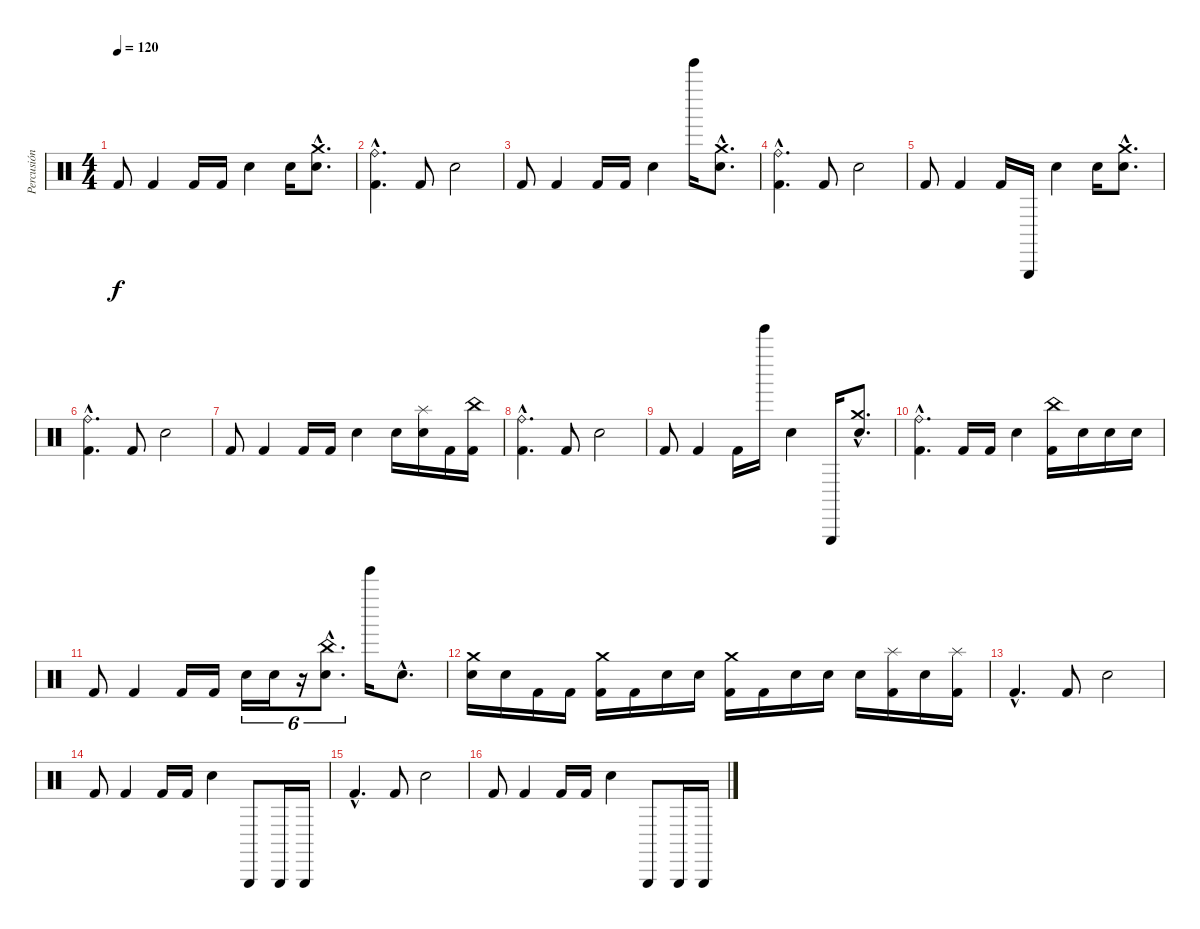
\track ("Percusión" "Percusión") {instrument percussion}
\staff {score}
\articulation defaults
\ts (4 4)
\tempo 120
\clef neutral
\ks c "Kick (hit) 2".8{dy f} "Kick (hit) 2".4 "Kick (hit) 2".16 "Kick (hit) 2".16 "Electric Snare (hit)".4 "Electric Snare (hit)".16
("Crash medium (hit)"{hac} "Electric Snare (hit)"{hac}).8{d} |
("Ride (bell)"{hac} "Kick (hit) 2"{hac}).4{d} "Kick (hit) 2".8 "Electric Snare (hit)".2 |
"Kick (hit) 2".8 "Kick (hit) 2".4 "Kick (hit) 2".16 "Kick (hit) 2".16 "Electric Snare (hit)".4 "Tinkle Bell (hit)".16 ("Crash medium (hit)"{hac} "Electric Snare (hit)"{hac}).8{d} |
("Ride (bell)"{hac} "Kick (hit) 2"{hac}).4{d} "Kick (hit) 2".8 "Electric Snare (hit)".2 |
"Kick (hit) 2".8 "Kick (hit) 2".4 "Kick (hit) 2".16 "Triangle (hit)".16 "Electric Snare (hit)".4 "Electric Snare (hit)".16 ("Crash medium (hit)"{hac} "Electric Snare (hit)"{hac}).8{d} |
("Ride (bell)"{hac} "Kick (hit) 2"{hac}).4{d} "Kick (hit) 2".8 "Electric Snare (hit)".2 |
"Kick (hit) 2".8 "Kick (hit) 2".4 "Kick (hit) 2".16 "Kick (hit) 2".16 "Electric Snare (hit)".4 "Electric Snare (hit)".16 ("Splash (hit)" "Electric Snare (hit)").16 "Kick (hit) 2".16 ("China (hit)" "Kick (hit) 2").16 |
("Ride (bell)"{hac} "Kick (hit) 2"{hac}).4{d} "Kick (hit) 2".8 "Electric Snare (hit)".2 |
"Kick (hit) 2".8 "Kick (hit) 2".4 "Kick (hit) 2".16 "Tinkle Bell (hit)".16 "Electric Snare (hit)".4 "Triangle (hit)".16 ("Crash medium (hit)"{hac} "Electric Snare (hit)"{hac}).8{d} |
("Ride (bell)"{hac} "Kick (hit) 2"{hac}).4{d} "Kick (hit) 2".16 "Kick (hit) 2".16 "Electric Snare (hit)".4 ("China (hit)" "Kick (hit) 2").16 "Electric Snare (hit)".16 "Electric Snare (hit)".16 "Electric Snare (hit)".16 |
"Kick (hit) 2".8 "Kick (hit) 2".4 "Kick (hit) 2".16 "Kick (hit) 2".16 "Electric Snare (hit)".16{tu (6 4)} "Electric Snare (hit)".16{tu (6 4)} r.16{tu (6 4)} ("China (hit)"{hac} "Electric Snare (hit)"{hac}).8{d tu (6 4)} "Tinkle Bell (hit)".16 "Electric Snare (hit)"{hac}.8{d} |
("Crash medium (hit)" "Electric Snare (hit)").16 "Electric Snare (hit)".16 "Kick (hit) 2".16 "Kick (hit) 2".16 ("Crash medium (hit)" "Kick (hit) 2").16 "Kick (hit) 2".16 "Electric Snare (hit)".16 "Electric Snare (hit)".16 ("Crash medium (hit)" "Kick (hit) 2").16 "Kick (hit) 2".16 "Electric Snare (hit)".16 "Electric Snare (hit)".16 "Electric Snare (hit)".16 ("Splash (hit)" "Kick (hit) 2").16 "Electric Snare (hit)".16 ("Splash (hit)" "Kick (hit) 2").16 |
"Kick (hit) 2"{hac}.4{d} "Kick (hit) 2".8 "Electric Snare (hit)".2 |
"Kick (hit) 2".8 "Kick (hit) 2".4 "Kick (hit) 2".16 "Kick (hit) 2".16 "Electric Snare (hit)".4 "Triangle (hit)".8 "Triangle (hit)".16 "Triangle (hit)".16 |
"Kick (hit) 2"{hac}.4{d} "Kick (hit) 2".8 "Electric Snare (hit)".2 |
"Kick (hit) 2".8 "Kick (hit) 2".4 "Kick (hit) 2".16 "Kick (hit) 2".16 "Electric Snare (hit)".4 "Triangle (hit)".8 "Triangle (hit)".16 "Triangle (hit)".16
